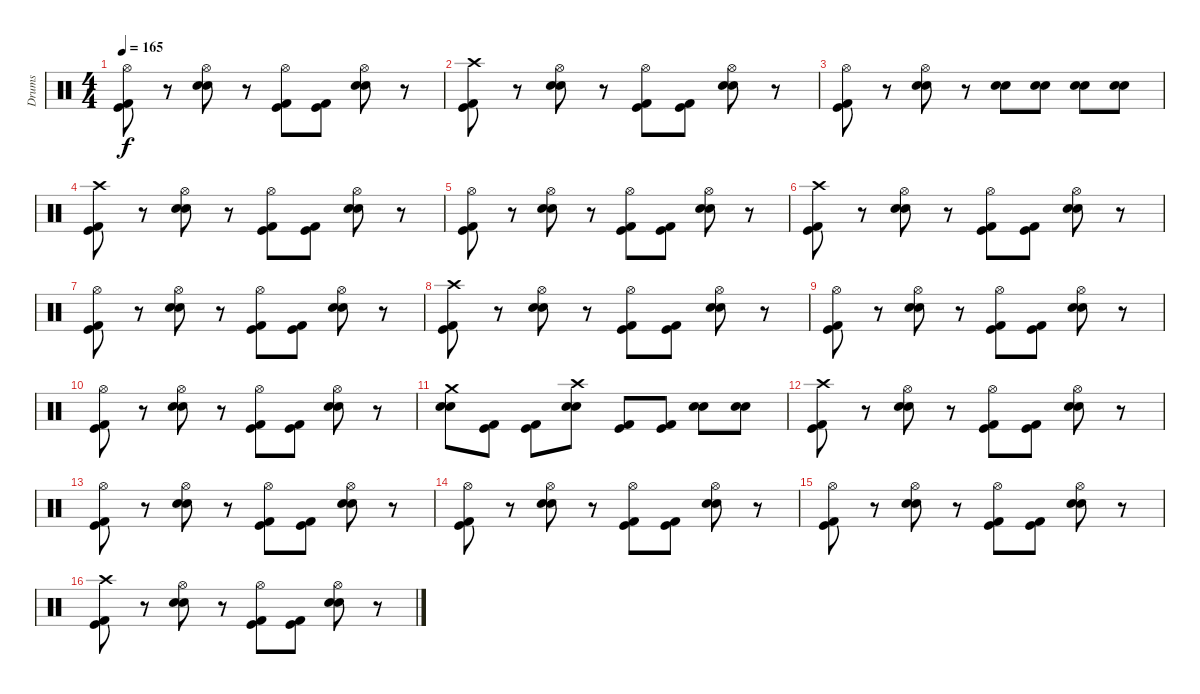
\track ("Drums" "Drums") {instrument percussion}
\staff {score}
\articulation defaults
\ts (4 4)
\tempo 165
\clef neutral
\ks c
("Hi-Hat (open)" "Kick (hit) 2" "Kick (hit)").8{dy f} r.8 ("Hi-Hat (open)" "Electric Snare (hit)" "Snare (hit) 2").8 r.8 ("Hi-Hat (open)" "Kick (hit) 2" "Kick (hit)").8 ("Kick (hit) 2" "Kick (hit)").8 ("Hi-Hat (open)" "Electric Snare (hit)" "Snare (hit) 2").8 r.8 |
("Crash high (hit)" "Kick (hit) 2" "Kick (hit)").8 r.8 ("Hi-Hat (open)" "Electric Snare (hit)" "Snare (hit) 2").8 r.8 ("Hi-Hat (open)" "Kick (hit) 2" "Kick (hit)").8 ("Kick (hit) 2" "Kick (hit)").8 ("Hi-Hat (open)" "Electric Snare (hit)" "Snare (hit) 2").8 r.8 |
("Hi-Hat (open)" "Kick (hit) 2" "Kick (hit)").8 r.8 ("Hi-Hat (open)" "Electric Snare (hit)" "Snare (hit) 2").8 r.8 ("Electric Snare (hit)" "Snare (hit) 2").8 ("Electric Snare (hit)" "Snare (hit) 2").8 ("Electric Snare (hit)" "Snare (hit) 2").8 ("Electric Snare (hit)" "Snare (hit) 2").8 |
("Crash high (hit)" "Kick (hit) 2" "Kick (hit)").8 r.8 ("Hi-Hat (open)" "Electric Snare (hit)" "Snare (hit) 2").8 r.8 ("Hi-Hat (open)" "Kick (hit) 2" "Kick (hit)").8 ("Kick (hit) 2" "Kick (hit)").8 ("Hi-Hat (open)" "Electric Snare (hit)" "Snare (hit) 2").8 r.8 |
("Hi-Hat (open)" "Kick (hit) 2" "Kick (hit)").8 r.8 ("Hi-Hat (open)" "Electric Snare (hit)" "Snare (hit) 2").8 r.8 ("Hi-Hat (open)" "Kick (hit) 2" "Kick (hit)").8 ("Kick (hit) 2" "Kick (hit)").8 ("Hi-Hat (open)" "Electric Snare (hit)" "Snare (hit) 2").8 r.8 |
("Crash high (hit)" "Kick (hit) 2" "Kick (hit)").8 r.8 ("Hi-Hat (open)" "Electric Snare (hit)" "Snare (hit) 2").8 r.8 ("Hi-Hat (open)" "Kick (hit) 2" "Kick (hit)").8 ("Kick (hit) 2" "Kick (hit)").8 ("Hi-Hat (open)" "Electric Snare (hit)" "Snare (hit) 2").8 r.8 |
("Hi-Hat (open)" "Kick (hit) 2" "Kick (hit)").8 r.8 ("Hi-Hat (open)" "Electric Snare (hit)" "Snare (hit) 2").8 r.8 ("Hi-Hat (open)" "Kick (hit) 2" "Kick (hit)").8 ("Kick (hit) 2" "Kick (hit)").8 ("Hi-Hat (open)" "Electric Snare (hit)" "Snare (hit) 2").8 r.8 |
("Crash high (hit)" "Kick (hit) 2" "Kick (hit)").8 r.8 ("Hi-Hat (open)" "Electric Snare (hit)" "Snare (hit) 2").8 r.8 ("Hi-Hat (open)" "Kick (hit) 2" "Kick (hit)").8 ("Kick (hit) 2" "Kick (hit)").8 ("Hi-Hat (open)" "Electric Snare (hit)" "Snare (hit) 2").8 r.8 |
("Hi-Hat (open)" "Kick (hit) 2" "Kick (hit)").8 r.8 ("Hi-Hat (open)" "Electric Snare (hit)" "Snare (hit) 2").8 r.8 ("Hi-Hat (open)" "Kick (hit) 2" "Kick (hit)").8 ("Kick (hit) 2" "Kick (hit)").8 ("Hi-Hat (open)" "Electric Snare (hit)" "Snare (hit) 2").8 r.8 |
("Hi-Hat (open)" "Kick (hit) 2" "Kick (hit)").8 r.8 ("Hi-Hat (open)" "Electric Snare (hit)" "Snare (hit) 2").8 r.8 ("Hi-Hat (open)" "Kick (hit) 2" "Kick (hit)").8 ("Kick (hit) 2" "Kick (hit)").8 ("Hi-Hat (open)" "Electric Snare (hit)" "Snare (hit) 2").8 r.8 |
("Electric Snare (hit)" "Snare (hit) 2" "Crash medium (hit)").8 ("Kick (hit) 2" "Kick (hit)").8 ("Kick (hit) 2" "Kick (hit)").8 ("Electric Snare (hit)" "Snare (hit) 2" "Crash high (hit)").8 ("Kick (hit) 2" "Kick (hit)").8 ("Kick (hit) 2" "Kick (hit)").8 ("Electric Snare (hit)" "Snare (hit) 2").8 ("Electric Snare (hit)" "Snare (hit) 2").8 |
("Crash high (hit)" "Kick (hit) 2" "Kick (hit)").8 r.8 ("Hi-Hat (open)" "Electric Snare (hit)" "Snare (hit) 2").8 r.8 ("Hi-Hat (open)" "Kick (hit) 2" "Kick (hit)").8 ("Kick (hit) 2" "Kick (hit)").8 ("Hi-Hat (open)" "Electric Snare (hit)" "Snare (hit) 2").8 r.8 |
("Hi-Hat (open)" "Kick (hit) 2" "Kick (hit)").8 r.8 ("Hi-Hat (open)" "Electric Snare (hit)" "Snare (hit) 2").8 r.8 ("Hi-Hat (open)" "Kick (hit) 2" "Kick (hit)").8 ("Kick (hit) 2" "Kick (hit)").8 ("Hi-Hat (open)" "Electric Snare (hit)" "Snare (hit) 2").8 r.8 |
("Hi-Hat (open)" "Kick (hit) 2" "Kick (hit)").8 r.8 ("Hi-Hat (open)" "Electric Snare (hit)" "Snare (hit) 2").8 r.8 ("Hi-Hat (open)" "Kick (hit) 2" "Kick (hit)").8 ("Kick (hit) 2" "Kick (hit)").8 ("Hi-Hat (open)" "Electric Snare (hit)" "Snare (hit) 2").8 r.8 |
("Hi-Hat (open)" "Kick (hit) 2" "Kick (hit)").8 r.8 ("Hi-Hat (open)" "Electric Snare (hit)" "Snare (hit) 2").8 r.8 ("Hi-Hat (open)" "Kick (hit) 2" "Kick (hit)").8 ("Kick (hit) 2" "Kick (hit)").8 ("Hi-Hat (open)" "Electric Snare (hit)" "Snare (hit) 2").8 r.8 |
("Crash high (hit)" "Kick (hit) 2" "Kick (hit)").8 r.8 ("Hi-Hat (open)" "Electric Snare (hit)" "Snare (hit) 2").8 r.8 ("Hi-Hat (open)" "Kick (hit) 2" "Kick (hit)").8 ("Kick (hit) 2" "Kick (hit)").8 ("Hi-Hat (open)" "Electric Snare (hit)" "Snare (hit) 2").8 r.8
